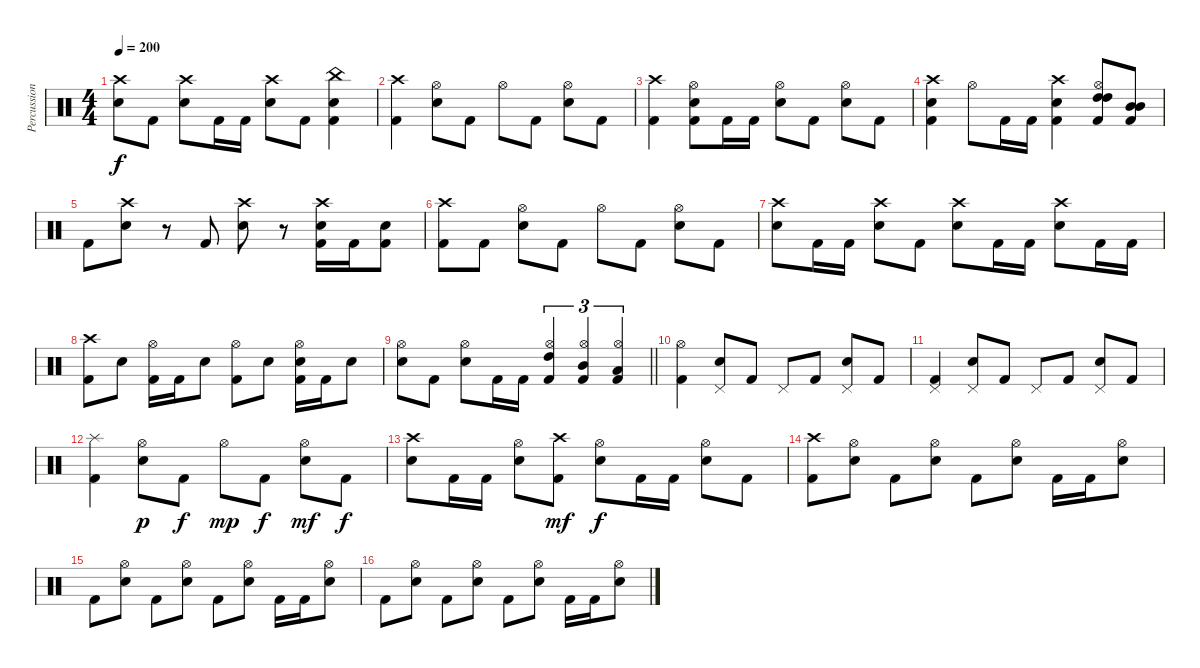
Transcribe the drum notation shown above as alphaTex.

\track ("Percussion" "Percussion") {instrument percussion}
\staff {score}
\articulation defaults
\ts (4 4)
\tempo 200
\clef neutral
\ks c
("Crash high (hit)" "Snare (hit) 2").8{dy f} "Kick (hit) 2".8 ("Crash high (hit)" "Snare (hit) 2").8 "Kick (hit) 2".16 "Kick (hit) 2".16 ("Crash high (hit)" "Snare (hit) 2").8 "Kick (hit) 2".8 ("China (hit)" "Snare (hit) 2" "Kick (hit) 2").4 |
("Crash high (hit)" "Kick (hit) 2").4 ("Hi-Hat (open)" "Snare (hit) 2").8 "Kick (hit) 2".8 "Hi-Hat (open)".8 "Kick (hit) 2".8 ("Hi-Hat (open)" "Snare (hit) 2").8 "Kick (hit) 2".8 |
("Crash high (hit)" "Kick (hit) 2").4 ("Hi-Hat (open)" "Snare (hit) 2" "Kick (hit) 2").8 "Kick (hit) 2".16 "Kick (hit) 2".16 ("Hi-Hat (open)" "Snare (hit) 2").8 "Kick (hit) 2".8 ("Hi-Hat (open)" "Snare (hit) 2").8 "Kick (hit) 2".8 |
("Crash high (hit)" "Snare (hit) 2" "Kick (hit) 2").4 "Hi-Hat (open)".8 "Kick (hit) 2".16 "Kick (hit) 2".16 ("Crash high (hit)" "Snare (hit) 2" "Kick (hit) 2").4 ("Hi-Hat (open)" "High Tom (hit)" "High Tom (hit)" "Kick (hit) 2").8 ("Mid Tom (hit)" "Mid Tom (hit)" "Kick (hit) 2").8 |
"Kick (hit) 2".8 ("Crash high (hit)" "Snare (hit) 2").8 r.8 "Kick (hit) 2".8 ("Crash high (hit)" "Snare (hit) 2").8 r.8 ("Crash high (hit)" "Snare (hit) 2" "Kick (hit) 2").16 "Kick (hit) 2".16 ("Snare (hit) 2" "Kick (hit) 2").8 |
("Crash high (hit)" "Kick (hit) 2").8 "Kick (hit) 2".8 ("Hi-Hat (open)" "Snare (hit) 2").8 "Kick (hit) 2".8 "Hi-Hat (open)".8 "Kick (hit) 2".8 ("Hi-Hat (open)" "Snare (hit) 2").8 "Kick (hit) 2".8 |
("Crash high (hit)" "Snare (hit) 2").8 "Kick (hit) 2".16 "Kick (hit) 2".16 ("Crash high (hit)" "Snare (hit) 2").8 "Kick (hit) 2".8 ("Crash high (hit)" "Snare (hit) 2").8 "Kick (hit) 2".16 "Kick (hit) 2".16 ("Crash high (hit)" "Snare (hit) 2").8 "Kick (hit) 2".16 "Kick (hit) 2".16 |
("Crash high (hit)" "Kick (hit) 2").8 "Snare (hit) 2".8 ("Hi-Hat (open)" "Kick (hit) 2").16 "Kick (hit) 2".16 "Snare (hit) 2".8 ("Hi-Hat (open)" "Kick (hit) 2").8 "Snare (hit) 2".8 ("Hi-Hat (open)" "Snare (hit) 2" "Kick (hit) 2").16 "Kick (hit) 2".16 "Snare (hit) 2".8 |
\barLineRight lightlight
("Hi-Hat (open)" "Snare (hit) 2").8 "Kick (hit) 2".8 ("Hi-Hat (open)" "Snare (hit) 2").8 "Kick (hit) 2".16 "Kick (hit) 2".16 ("Hi-Hat (open)" "High Tom (hit)" "Kick (hit) 2").4{tu (3 2)} ("Hi-Hat (open)" "Mid Tom (hit)" "Kick (hit) 2").4{tu (3 2)} ("Hi-Hat (open)" "Low Tom (hit)" "Kick (hit) 2").4{tu (3 2)} |
\section ("" " ")
("Hi-Hat (open)" "Kick (hit) 2").4 ("Pedal Hi-Hat (hit)" "Snare (hit) 2").8 "Kick (hit) 2".8 "Pedal Hi-Hat (hit)".8 "Kick (hit) 2".8 ("Pedal Hi-Hat (hit)" "Snare (hit) 2").8 "Kick (hit) 2".8 |
("Pedal Hi-Hat (hit)" "Kick (hit) 2").4 ("Pedal Hi-Hat (hit)" "Snare (hit) 2").8 "Kick (hit) 2".8 "Pedal Hi-Hat (hit)".8 "Kick (hit) 2".8 ("Pedal Hi-Hat (hit)" "Snare (hit) 2").8 "Kick (hit) 2".8 |
("Splash (hit)" "Kick (hit) 2").4 ("Hi-Hat (open)" "Snare (hit) 2").8{dy p} "Kick (hit) 2".8{dy f} "Hi-Hat (open)".8{dy mp} "Kick (hit) 2".8{dy f} ("Hi-Hat (open)" "Snare (hit) 2").8{dy mf} "Kick (hit) 2".8{dy f} |
("Crash high (hit)" "Snare (hit) 2").8 "Kick (hit) 2".16 "Kick (hit) 2".16 ("Hi-Hat (open)" "Snare (hit) 2").8 ("Crash high (hit)" "Kick (hit) 2").8{dy mf} ("Hi-Hat (open)" "Snare (hit) 2").8{dy f} "Kick (hit) 2".16 "Kick (hit) 2".16 ("Hi-Hat (open)" "Snare (hit) 2").8 "Kick (hit) 2".8 |
("Crash high (hit)" "Kick (hit) 2").8 ("Hi-Hat (open)" "Snare (hit) 2").8 "Kick (hit) 2".8 ("Hi-Hat (open)" "Snare (hit) 2").8 "Kick (hit) 2".8 ("Hi-Hat (open)" "Snare (hit) 2").8 "Kick (hit) 2".16 "Kick (hit) 2".16 ("Hi-Hat (open)" "Snare (hit) 2").8 |
"Kick (hit) 2".8 ("Hi-Hat (open)" "Snare (hit) 2").8 "Kick (hit) 2".8 ("Hi-Hat (open)" "Snare (hit) 2").8 "Kick (hit) 2".8 ("Hi-Hat (open)" "Snare (hit) 2").8 "Kick (hit) 2".16 "Kick (hit) 2".16 ("Hi-Hat (open)" "Snare (hit) 2").8 |
"Kick (hit) 2".8 ("Hi-Hat (open)" "Snare (hit) 2").8 "Kick (hit) 2".8 ("Hi-Hat (open)" "Snare (hit) 2").8 "Kick (hit) 2".8 ("Hi-Hat (open)" "Snare (hit) 2").8 "Kick (hit) 2".16 "Kick (hit) 2".16 ("Hi-Hat (open)" "Snare (hit) 2").8
